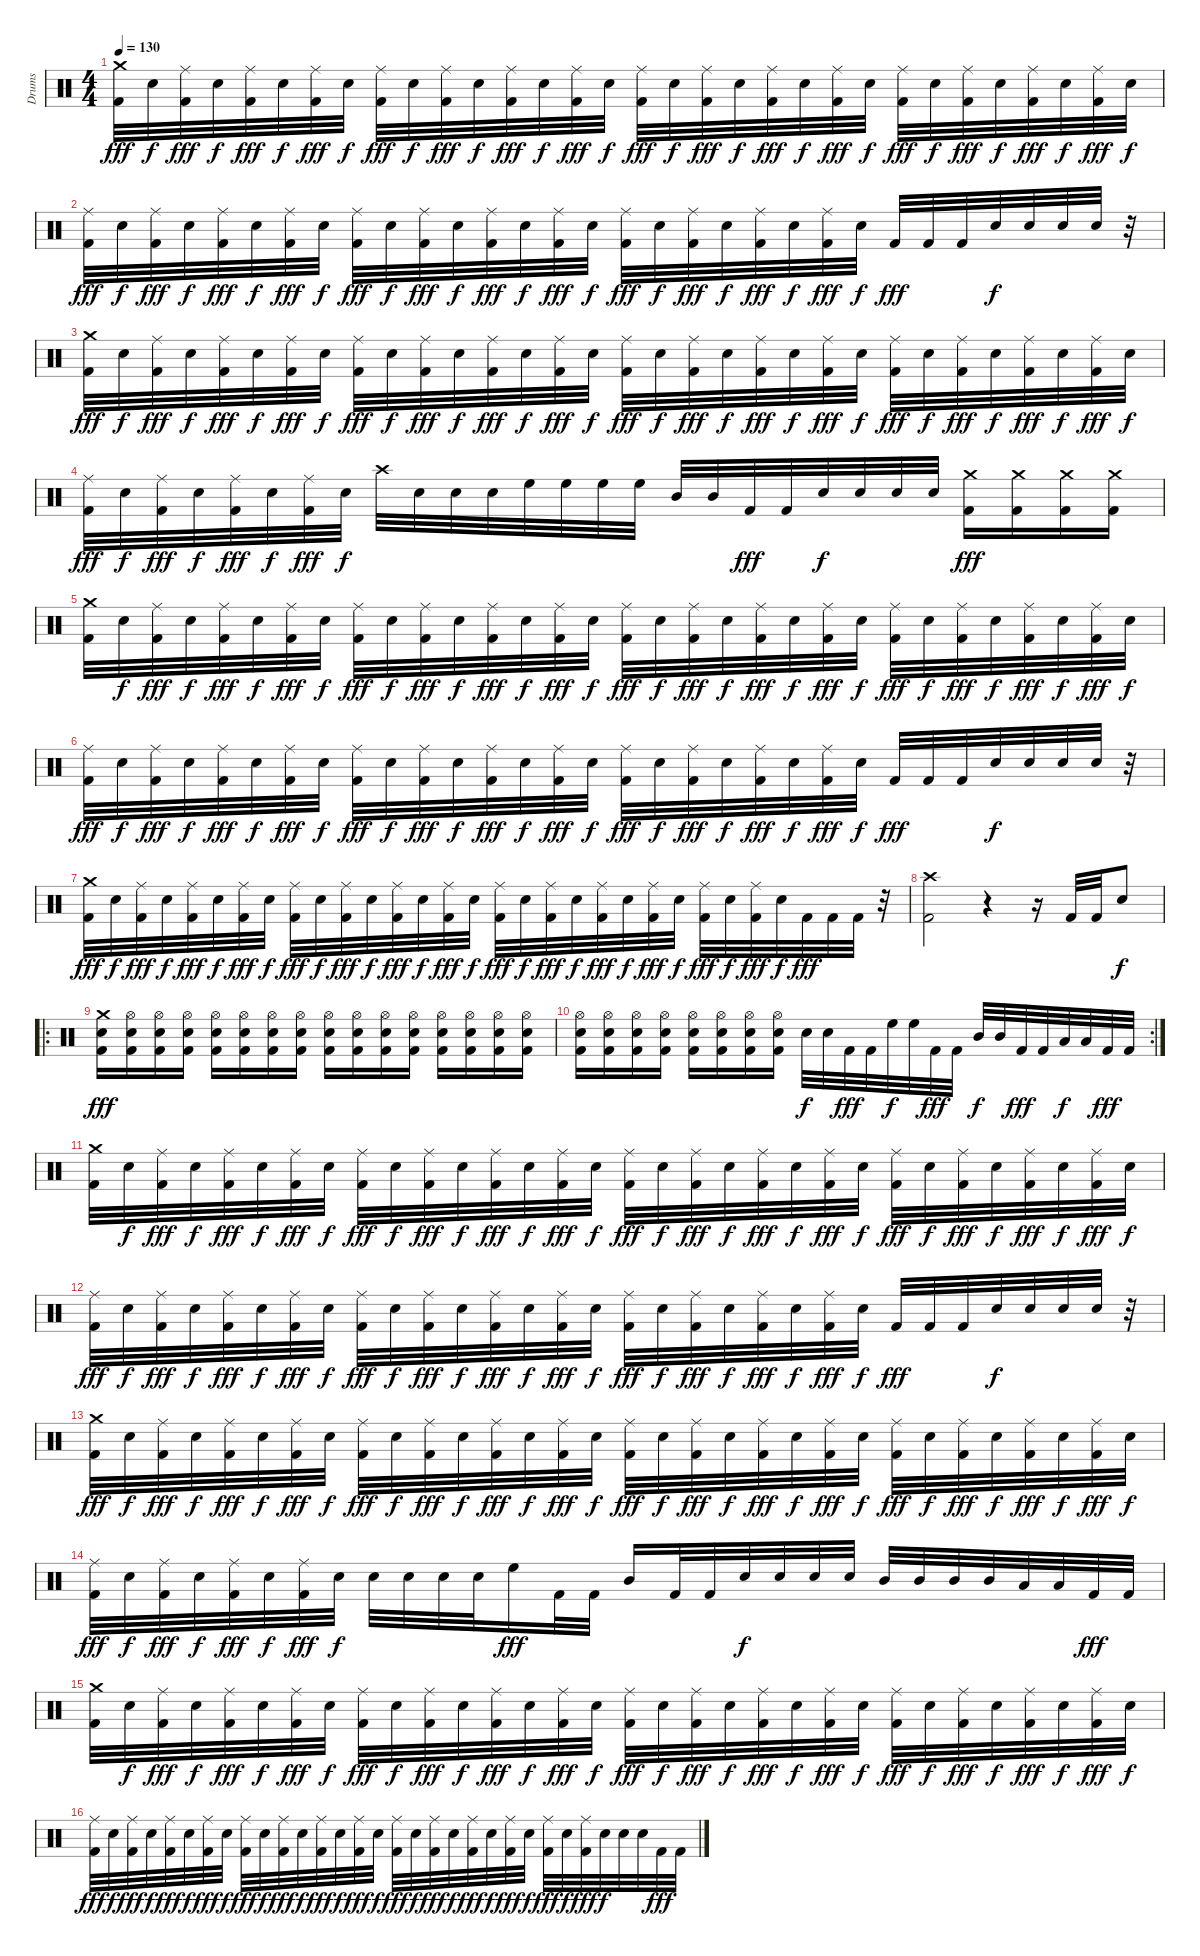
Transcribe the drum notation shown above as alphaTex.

\track ("Drums" "Drums") {instrument percussion}
\staff {score}
\articulation defaults
\ts (4 4)
\tempo 130
\clef neutral
\ks c
("Crash medium (hit)" "Kick (hit) 2").32{dy fff} "Electric Snare (hit)".32{dy f} ("Ride (middle)" "Kick (hit) 2").32{dy fff} "Electric Snare (hit)".32{dy f} ("Ride (middle)" "Kick (hit) 2").32{dy fff} "Electric Snare (hit)".32{dy f} ("Ride (middle)" "Kick (hit) 2").32{dy fff} "Electric Snare (hit)".32{dy f} ("Ride (middle)" "Kick (hit) 2").32{dy fff} "Electric Snare (hit)".32{dy f} ("Ride (middle)" "Kick (hit) 2").32{dy fff} "Electric Snare (hit)".32{dy f} ("Ride (middle)" "Kick (hit) 2").32{dy fff} "Electric Snare (hit)".32{dy f} ("Ride (middle)" "Kick (hit) 2").32{dy fff} "Electric Snare (hit)".32{dy f} ("Ride (middle)" "Kick (hit) 2").32{dy fff} "Electric Snare (hit)".32{dy f} ("Ride (middle)" "Kick (hit) 2").32{dy fff} "Electric Snare (hit)".32{dy f} ("Ride (middle)" "Kick (hit) 2").32{dy fff} "Electric Snare (hit)".32{dy f} ("Ride (middle)" "Kick (hit) 2").32{dy fff} "Electric Snare (hit)".32{dy f} ("Ride (middle)" "Kick (hit) 2").32{dy fff} "Electric Snare (hit)".32{dy f} ("Ride (middle)" "Kick (hit) 2").32{dy fff} "Electric Snare (hit)".32{dy f} ("Ride (middle)" "Kick (hit) 2").32{dy fff} "Electric Snare (hit)".32{dy f} ("Ride (middle)" "Kick (hit) 2").32{dy fff} "Electric Snare (hit)".32{dy f} |
("Ride (middle)" "Kick (hit) 2").32{dy fff} "Electric Snare (hit)".32{dy f} ("Ride (middle)" "Kick (hit) 2").32{dy fff} "Electric Snare (hit)".32{dy f} ("Ride (middle)" "Kick (hit) 2").32{dy fff} "Electric Snare (hit)".32{dy f} ("Ride (middle)" "Kick (hit) 2").32{dy fff} "Electric Snare (hit)".32{dy f} ("Ride (middle)" "Kick (hit) 2").32{dy fff} "Electric Snare (hit)".32{dy f} ("Ride (middle)" "Kick (hit) 2").32{dy fff} "Electric Snare (hit)".32{dy f} ("Ride (middle)" "Kick (hit) 2").32{dy fff} "Electric Snare (hit)".32{dy f} ("Ride (middle)" "Kick (hit) 2").32{dy fff} "Electric Snare (hit)".32{dy f} ("Ride (middle)" "Kick (hit) 2").32{dy fff} "Electric Snare (hit)".32{dy f} ("Ride (middle)" "Kick (hit) 2").32{dy fff} "Electric Snare (hit)".32{dy f} ("Ride (middle)" "Kick (hit) 2").32{dy fff} "Electric Snare (hit)".32{dy f} ("Ride (middle)" "Kick (hit) 2").32{dy fff} "Electric Snare (hit)".32{dy f} "Kick (hit) 2".32{dy fff} "Kick (hit) 2".32 "Kick (hit) 2".32 "Electric Snare (hit)".32{dy f} "Electric Snare (hit)".32 "Electric Snare (hit)".32 "Electric Snare (hit)".32 r.32 |
("Crash medium (hit)" "Kick (hit) 2").32{dy fff} "Electric Snare (hit)".32{dy f} ("Ride (middle)" "Kick (hit) 2").32{dy fff} "Electric Snare (hit)".32{dy f} ("Ride (middle)" "Kick (hit) 2").32{dy fff} "Electric Snare (hit)".32{dy f} ("Ride (middle)" "Kick (hit) 2").32{dy fff} "Electric Snare (hit)".32{dy f} ("Ride (middle)" "Kick (hit) 2").32{dy fff} "Electric Snare (hit)".32{dy f} ("Ride (middle)" "Kick (hit) 2").32{dy fff} "Electric Snare (hit)".32{dy f} ("Ride (middle)" "Kick (hit) 2").32{dy fff} "Electric Snare (hit)".32{dy f} ("Ride (middle)" "Kick (hit) 2").32{dy fff} "Electric Snare (hit)".32{dy f} ("Ride (middle)" "Kick (hit) 2").32{dy fff} "Electric Snare (hit)".32{dy f} ("Ride (middle)" "Kick (hit) 2").32{dy fff} "Electric Snare (hit)".32{dy f} ("Ride (middle)" "Kick (hit) 2").32{dy fff} "Electric Snare (hit)".32{dy f} ("Ride (middle)" "Kick (hit) 2").32{dy fff} "Electric Snare (hit)".32{dy f} ("Ride (middle)" "Kick (hit) 2").32{dy fff} "Electric Snare (hit)".32{dy f} ("Ride (middle)" "Kick (hit) 2").32{dy fff} "Electric Snare (hit)".32{dy f} ("Ride (middle)" "Kick (hit) 2").32{dy fff} "Electric Snare (hit)".32{dy f} ("Ride (middle)" "Kick (hit) 2").32{dy fff} "Electric Snare (hit)".32{dy f} |
("Ride (middle)" "Kick (hit) 2").32{dy fff} "Electric Snare (hit)".32{dy f} ("Ride (middle)" "Kick (hit) 2").32{dy fff} "Electric Snare (hit)".32{dy f} ("Ride (middle)" "Kick (hit) 2").32{dy fff} "Electric Snare (hit)".32{dy f} ("Ride (middle)" "Kick (hit) 2").32{dy fff} "Electric Snare (hit)".32{dy f} "Crash high (hit)".32 "Electric Snare (hit)".32 "Electric Snare (hit)".32 "Electric Snare (hit)".32 "High Floor Tom (hit)".32 "High Floor Tom (hit)".32 "High Floor Tom (hit)".32 "High Floor Tom (hit)".32 "Mid Tom (hit)".32 "Mid Tom (hit)".32 "Kick (hit) 2".32{dy fff} "Kick (hit) 2".32 "Electric Snare (hit)".32{dy f} "Electric Snare (hit)".32 "Electric Snare (hit)".32 "Electric Snare (hit)".32 ("Crash medium (hit)" "Kick (hit) 2").16{dy fff} ("Crash medium (hit)" "Kick (hit) 2").16 ("Crash medium (hit)" "Kick (hit) 2").16 ("Crash medium (hit)" "Kick (hit) 2").16 |
("Crash medium (hit)" "Kick (hit) 2").32 "Electric Snare (hit)".32{dy f} ("Ride (middle)" "Kick (hit) 2").32{dy fff} "Electric Snare (hit)".32{dy f} ("Ride (middle)" "Kick (hit) 2").32{dy fff} "Electric Snare (hit)".32{dy f} ("Ride (middle)" "Kick (hit) 2").32{dy fff} "Electric Snare (hit)".32{dy f} ("Ride (middle)" "Kick (hit) 2").32{dy fff} "Electric Snare (hit)".32{dy f} ("Ride (middle)" "Kick (hit) 2").32{dy fff} "Electric Snare (hit)".32{dy f} ("Ride (middle)" "Kick (hit) 2").32{dy fff} "Electric Snare (hit)".32{dy f} ("Ride (middle)" "Kick (hit) 2").32{dy fff} "Electric Snare (hit)".32{dy f} ("Ride (middle)" "Kick (hit) 2").32{dy fff} "Electric Snare (hit)".32{dy f} ("Ride (middle)" "Kick (hit) 2").32{dy fff} "Electric Snare (hit)".32{dy f} ("Ride (middle)" "Kick (hit) 2").32{dy fff} "Electric Snare (hit)".32{dy f} ("Ride (middle)" "Kick (hit) 2").32{dy fff} "Electric Snare (hit)".32{dy f} ("Ride (middle)" "Kick (hit) 2").32{dy fff} "Electric Snare (hit)".32{dy f} ("Ride (middle)" "Kick (hit) 2").32{dy fff} "Electric Snare (hit)".32{dy f} ("Ride (middle)" "Kick (hit) 2").32{dy fff} "Electric Snare (hit)".32{dy f} ("Ride (middle)" "Kick (hit) 2").32{dy fff} "Electric Snare (hit)".32{dy f} |
("Ride (middle)" "Kick (hit) 2").32{dy fff} "Electric Snare (hit)".32{dy f} ("Ride (middle)" "Kick (hit) 2").32{dy fff} "Electric Snare (hit)".32{dy f} ("Ride (middle)" "Kick (hit) 2").32{dy fff} "Electric Snare (hit)".32{dy f} ("Ride (middle)" "Kick (hit) 2").32{dy fff} "Electric Snare (hit)".32{dy f} ("Ride (middle)" "Kick (hit) 2").32{dy fff} "Electric Snare (hit)".32{dy f} ("Ride (middle)" "Kick (hit) 2").32{dy fff} "Electric Snare (hit)".32{dy f} ("Ride (middle)" "Kick (hit) 2").32{dy fff} "Electric Snare (hit)".32{dy f} ("Ride (middle)" "Kick (hit) 2").32{dy fff} "Electric Snare (hit)".32{dy f} ("Ride (middle)" "Kick (hit) 2").32{dy fff} "Electric Snare (hit)".32{dy f} ("Ride (middle)" "Kick (hit) 2").32{dy fff} "Electric Snare (hit)".32{dy f} ("Ride (middle)" "Kick (hit) 2").32{dy fff} "Electric Snare (hit)".32{dy f} ("Ride (middle)" "Kick (hit) 2").32{dy fff} "Electric Snare (hit)".32{dy f} "Kick (hit) 2".32{dy fff} "Kick (hit) 2".32 "Kick (hit) 2".32 "Electric Snare (hit)".32{dy f} "Electric Snare (hit)".32 "Electric Snare (hit)".32 "Electric Snare (hit)".32 r.32 |
("Crash medium (hit)" "Kick (hit) 2").32{dy fff} "Electric Snare (hit)".32{dy f} ("Ride (middle)" "Kick (hit) 2").32{dy fff} "Electric Snare (hit)".32{dy f} ("Ride (middle)" "Kick (hit) 2").32{dy fff} "Electric Snare (hit)".32{dy f} ("Ride (middle)" "Kick (hit) 2").32{dy fff} "Electric Snare (hit)".32{dy f} ("Ride (middle)" "Kick (hit) 2").32{dy fff} "Electric Snare (hit)".32{dy f} ("Ride (middle)" "Kick (hit) 2").32{dy fff} "Electric Snare (hit)".32{dy f} ("Ride (middle)" "Kick (hit) 2").32{dy fff} "Electric Snare (hit)".32{dy f} ("Ride (middle)" "Kick (hit) 2").32{dy fff} "Electric Snare (hit)".32{dy f} ("Ride (middle)" "Kick (hit) 2").32{dy fff} "Electric Snare (hit)".32{dy f} ("Ride (middle)" "Kick (hit) 2").32{dy fff} "Electric Snare (hit)".32{dy f} ("Ride (middle)" "Kick (hit) 2").32{dy fff} "Electric Snare (hit)".32{dy f} ("Ride (middle)" "Kick (hit) 2").32{dy fff} "Electric Snare (hit)".32{dy f} ("Ride (middle)" "Kick (hit) 2").32{dy fff} "Electric Snare (hit)".32{dy f} ("Ride (middle)" "Kick (hit) 2").32{dy fff} "Electric Snare (hit)".32{dy f} "Kick (hit) 2".32{dy fff} "Kick (hit) 2".32 "Kick (hit) 2".32 r.32 |
("Crash high (hit)" "Kick (hit) 2").2 r.4 r.16 "Kick (hit) 2".32 "Kick (hit) 2".32 "Electric Snare (hit)".8{dy f} |
\ro
("Crash medium (hit)" "Electric Snare (hit)" "Kick (hit) 2").16{dy fff} ("Hi-Hat (open)" "Electric Snare (hit)" "Kick (hit) 2").16 ("Hi-Hat (open)" "Electric Snare (hit)" "Kick (hit) 2").16 ("Hi-Hat (open)" "Electric Snare (hit)" "Kick (hit) 2").16 ("Hi-Hat (open)" "Electric Snare (hit)" "Kick (hit) 2").16 ("Hi-Hat (open)" "Electric Snare (hit)" "Kick (hit) 2").16 ("Hi-Hat (open)" "Electric Snare (hit)" "Kick (hit) 2").16 ("Hi-Hat (open)" "Electric Snare (hit)" "Kick (hit) 2").16 ("Hi-Hat (open)" "Electric Snare (hit)" "Kick (hit) 2").16 ("Hi-Hat (open)" "Electric Snare (hit)" "Kick (hit) 2").16 ("Hi-Hat (open)" "Electric Snare (hit)" "Kick (hit) 2").16 ("Hi-Hat (open)" "Electric Snare (hit)" "Kick (hit) 2").16 ("Hi-Hat (open)" "Electric Snare (hit)" "Kick (hit) 2").16 ("Hi-Hat (open)" "Electric Snare (hit)" "Kick (hit) 2").16 ("Hi-Hat (open)" "Electric Snare (hit)" "Kick (hit) 2").16 ("Hi-Hat (open)" "Electric Snare (hit)" "Kick (hit) 2").16 |
\rc 2
("Hi-Hat (open)" "Electric Snare (hit)" "Kick (hit) 2").16 ("Hi-Hat (open)" "Electric Snare (hit)" "Kick (hit) 2").16 ("Hi-Hat (open)" "Electric Snare (hit)" "Kick (hit) 2").16 ("Hi-Hat (open)" "Electric Snare (hit)" "Kick (hit) 2").16 ("Hi-Hat (open)" "Electric Snare (hit)" "Kick (hit) 2").16 ("Hi-Hat (open)" "Electric Snare (hit)" "Kick (hit) 2").16 ("Hi-Hat (open)" "Electric Snare (hit)" "Kick (hit) 2").16 ("Hi-Hat (open)" "Electric Snare (hit)" "Kick (hit) 2").16 "Electric Snare (hit)".32{dy f} "Electric Snare (hit)".32 "Kick (hit) 2".32{dy fff} "Kick (hit) 2".32 "High Floor Tom (hit)".32{dy f} "High Floor Tom (hit)".32 "Kick (hit) 2".32{dy fff} "Kick (hit) 2".32 "Mid Tom (hit)".32{dy f} "Mid Tom (hit)".32 "Kick (hit) 2".32{dy fff} "Kick (hit) 2".32 "Low Tom (hit)".32{dy f} "Low Tom (hit)".32 "Kick (hit) 2".32{dy fff} "Kick (hit) 2".32 |
("Crash medium (hit)" "Kick (hit) 2").32 "Electric Snare (hit)".32{dy f} ("Ride (middle)" "Kick (hit) 2").32{dy fff} "Electric Snare (hit)".32{dy f} ("Ride (middle)" "Kick (hit) 2").32{dy fff} "Electric Snare (hit)".32{dy f} ("Ride (middle)" "Kick (hit) 2").32{dy fff} "Electric Snare (hit)".32{dy f} ("Ride (middle)" "Kick (hit) 2").32{dy fff} "Electric Snare (hit)".32{dy f} ("Ride (middle)" "Kick (hit) 2").32{dy fff} "Electric Snare (hit)".32{dy f} ("Ride (middle)" "Kick (hit) 2").32{dy fff} "Electric Snare (hit)".32{dy f} ("Ride (middle)" "Kick (hit) 2").32{dy fff} "Electric Snare (hit)".32{dy f} ("Ride (middle)" "Kick (hit) 2").32{dy fff} "Electric Snare (hit)".32{dy f} ("Ride (middle)" "Kick (hit) 2").32{dy fff} "Electric Snare (hit)".32{dy f} ("Ride (middle)" "Kick (hit) 2").32{dy fff} "Electric Snare (hit)".32{dy f} ("Ride (middle)" "Kick (hit) 2").32{dy fff} "Electric Snare (hit)".32{dy f} ("Ride (middle)" "Kick (hit) 2").32{dy fff} "Electric Snare (hit)".32{dy f} ("Ride (middle)" "Kick (hit) 2").32{dy fff} "Electric Snare (hit)".32{dy f} ("Ride (middle)" "Kick (hit) 2").32{dy fff} "Electric Snare (hit)".32{dy f} ("Ride (middle)" "Kick (hit) 2").32{dy fff} "Electric Snare (hit)".32{dy f} |
("Ride (middle)" "Kick (hit) 2").32{dy fff} "Electric Snare (hit)".32{dy f} ("Ride (middle)" "Kick (hit) 2").32{dy fff} "Electric Snare (hit)".32{dy f} ("Ride (middle)" "Kick (hit) 2").32{dy fff} "Electric Snare (hit)".32{dy f} ("Ride (middle)" "Kick (hit) 2").32{dy fff} "Electric Snare (hit)".32{dy f} ("Ride (middle)" "Kick (hit) 2").32{dy fff} "Electric Snare (hit)".32{dy f} ("Ride (middle)" "Kick (hit) 2").32{dy fff} "Electric Snare (hit)".32{dy f} ("Ride (middle)" "Kick (hit) 2").32{dy fff} "Electric Snare (hit)".32{dy f} ("Ride (middle)" "Kick (hit) 2").32{dy fff} "Electric Snare (hit)".32{dy f} ("Ride (middle)" "Kick (hit) 2").32{dy fff} "Electric Snare (hit)".32{dy f} ("Ride (middle)" "Kick (hit) 2").32{dy fff} "Electric Snare (hit)".32{dy f} ("Ride (middle)" "Kick (hit) 2").32{dy fff} "Electric Snare (hit)".32{dy f} ("Ride (middle)" "Kick (hit) 2").32{dy fff} "Electric Snare (hit)".32{dy f} "Kick (hit) 2".32{dy fff} "Kick (hit) 2".32 "Kick (hit) 2".32 "Electric Snare (hit)".32{dy f} "Electric Snare (hit)".32 "Electric Snare (hit)".32 "Electric Snare (hit)".32 r.32 |
("Crash medium (hit)" "Kick (hit) 2").32{dy fff} "Electric Snare (hit)".32{dy f} ("Ride (middle)" "Kick (hit) 2").32{dy fff} "Electric Snare (hit)".32{dy f} ("Ride (middle)" "Kick (hit) 2").32{dy fff} "Electric Snare (hit)".32{dy f} ("Ride (middle)" "Kick (hit) 2").32{dy fff} "Electric Snare (hit)".32{dy f} ("Ride (middle)" "Kick (hit) 2").32{dy fff} "Electric Snare (hit)".32{dy f} ("Ride (middle)" "Kick (hit) 2").32{dy fff} "Electric Snare (hit)".32{dy f} ("Ride (middle)" "Kick (hit) 2").32{dy fff} "Electric Snare (hit)".32{dy f} ("Ride (middle)" "Kick (hit) 2").32{dy fff} "Electric Snare (hit)".32{dy f} ("Ride (middle)" "Kick (hit) 2").32{dy fff} "Electric Snare (hit)".32{dy f} ("Ride (middle)" "Kick (hit) 2").32{dy fff} "Electric Snare (hit)".32{dy f} ("Ride (middle)" "Kick (hit) 2").32{dy fff} "Electric Snare (hit)".32{dy f} ("Ride (middle)" "Kick (hit) 2").32{dy fff} "Electric Snare (hit)".32{dy f} ("Ride (middle)" "Kick (hit) 2").32{dy fff} "Electric Snare (hit)".32{dy f} ("Ride (middle)" "Kick (hit) 2").32{dy fff} "Electric Snare (hit)".32{dy f} ("Ride (middle)" "Kick (hit) 2").32{dy fff} "Electric Snare (hit)".32{dy f} ("Ride (middle)" "Kick (hit) 2").32{dy fff} "Electric Snare (hit)".32{dy f} |
("Ride (middle)" "Kick (hit) 2").32{dy fff} "Electric Snare (hit)".32{dy f} ("Ride (middle)" "Kick (hit) 2").32{dy fff} "Electric Snare (hit)".32{dy f} ("Ride (middle)" "Kick (hit) 2").32{dy fff} "Electric Snare (hit)".32{dy f} ("Ride (middle)" "Kick (hit) 2").32{dy fff} "Electric Snare (hit)".32{dy f} "Electric Snare (hit)".32 "Electric Snare (hit)".32 "Electric Snare (hit)".32 "Electric Snare (hit)".32 "High Floor Tom (hit)".16{dy fff} "Kick (hit) 2".32 "Kick (hit) 2".32 "Mid Tom (hit)".16 "Kick (hit) 2".32 "Kick (hit) 2".32 "Electric Snare (hit)".32{dy f} "Electric Snare (hit)".32 "Electric Snare (hit)".32 "Electric Snare (hit)".32 "Mid Tom (hit)".32 "Mid Tom (hit)".32 "Mid Tom (hit)".32 "Mid Tom (hit)".32 "Low Tom (hit)".32 "Low Tom (hit)".32 "Kick (hit) 2".32{dy fff} "Kick (hit) 2".32 |
("Crash medium (hit)" "Kick (hit) 2").32 "Electric Snare (hit)".32{dy f} ("Ride (middle)" "Kick (hit) 2").32{dy fff} "Electric Snare (hit)".32{dy f} ("Ride (middle)" "Kick (hit) 2").32{dy fff} "Electric Snare (hit)".32{dy f} ("Ride (middle)" "Kick (hit) 2").32{dy fff} "Electric Snare (hit)".32{dy f} ("Ride (middle)" "Kick (hit) 2").32{dy fff} "Electric Snare (hit)".32{dy f} ("Ride (middle)" "Kick (hit) 2").32{dy fff} "Electric Snare (hit)".32{dy f} ("Ride (middle)" "Kick (hit) 2").32{dy fff} "Electric Snare (hit)".32{dy f} ("Ride (middle)" "Kick (hit) 2").32{dy fff} "Electric Snare (hit)".32{dy f} ("Ride (middle)" "Kick (hit) 2").32{dy fff} "Electric Snare (hit)".32{dy f} ("Ride (middle)" "Kick (hit) 2").32{dy fff} "Electric Snare (hit)".32{dy f} ("Ride (middle)" "Kick (hit) 2").32{dy fff} "Electric Snare (hit)".32{dy f} ("Ride (middle)" "Kick (hit) 2").32{dy fff} "Electric Snare (hit)".32{dy f} ("Ride (middle)" "Kick (hit) 2").32{dy fff} "Electric Snare (hit)".32{dy f} ("Ride (middle)" "Kick (hit) 2").32{dy fff} "Electric Snare (hit)".32{dy f} ("Ride (middle)" "Kick (hit) 2").32{dy fff} "Electric Snare (hit)".32{dy f} ("Ride (middle)" "Kick (hit) 2").32{dy fff} "Electric Snare (hit)".32{dy f} |
("Ride (middle)" "Kick (hit) 2").32{dy fff} "Electric Snare (hit)".32{dy f} ("Ride (middle)" "Kick (hit) 2").32{dy fff} "Electric Snare (hit)".32{dy f} ("Ride (middle)" "Kick (hit) 2").32{dy fff} "Electric Snare (hit)".32{dy f} ("Ride (middle)" "Kick (hit) 2").32{dy fff} "Electric Snare (hit)".32{dy f} ("Ride (middle)" "Kick (hit) 2").32{dy fff} "Electric Snare (hit)".32{dy f} ("Ride (middle)" "Kick (hit) 2").32{dy fff} "Electric Snare (hit)".32{dy f} ("Ride (middle)" "Kick (hit) 2").32{dy fff} "Electric Snare (hit)".32{dy f} ("Ride (middle)" "Kick (hit) 2").32{dy fff} "Electric Snare (hit)".32{dy f} ("Ride (middle)" "Kick (hit) 2").32{dy fff} "Electric Snare (hit)".32{dy f} ("Ride (middle)" "Kick (hit) 2").32{dy fff} "Electric Snare (hit)".32{dy f} ("Ride (middle)" "Kick (hit) 2").32{dy fff} "Electric Snare (hit)".32{dy f} ("Ride (middle)" "Kick (hit) 2").32{dy fff} "Electric Snare (hit)".32{dy f} ("Ride (middle)" "Kick (hit) 2").32{dy fff} "Electric Snare (hit)".32{dy f} ("Ride (middle)" "Kick (hit) 2").32{dy fff} "Electric Snare (hit)".32{dy f} "Electric Snare (hit)".32 "Electric Snare (hit)".32 "Kick (hit) 2".32{dy fff} "Kick (hit) 2".32
